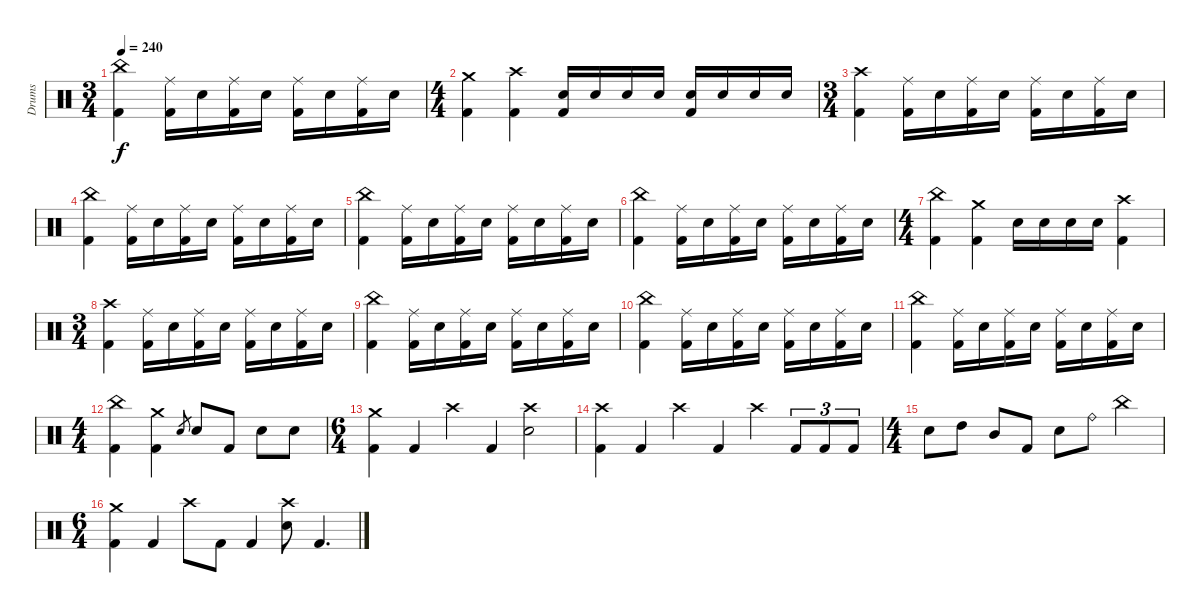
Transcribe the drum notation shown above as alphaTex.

\track ("Drums" "Drums") {instrument percussion}
\staff {score}
\articulation defaults
\ts (3 4)
\tempo 240
\clef neutral
\ks c
("China (hit)" "Kick (hit) 2").4{dy f} ("Ride (middle)" "Kick (hit) 2").16 "Electric Snare (hit)".16 ("Ride (middle)" "Kick (hit) 2").16 "Electric Snare (hit)".16 ("Ride (middle)" "Kick (hit) 2").16 "Electric Snare (hit)".16 ("Ride (middle)" "Kick (hit) 2").16 "Electric Snare (hit)".16 |
\ts (4 4)
("Crash medium (hit)" "Kick (hit) 2").4 ("Crash high (hit)" "Kick (hit) 2").4 ("Kick (hit) 2" "Electric Snare (hit)").16 "Electric Snare (hit)".16 "Electric Snare (hit)".16 "Electric Snare (hit)".16 ("Kick (hit) 2" "Electric Snare (hit)").16 "Electric Snare (hit)".16 "Electric Snare (hit)".16 "Electric Snare (hit)".16 |
\ts (3 4)
("Crash high (hit)" "Kick (hit) 2").4 ("Ride (middle)" "Kick (hit) 2").16 "Electric Snare (hit)".16 ("Ride (middle)" "Kick (hit) 2").16 "Electric Snare (hit)".16 ("Ride (middle)" "Kick (hit) 2").16 "Electric Snare (hit)".16 ("Ride (middle)" "Kick (hit) 2").16 "Electric Snare (hit)".16 |
("China (hit)" "Kick (hit) 2").4 ("Ride (middle)" "Kick (hit) 2").16 "Electric Snare (hit)".16 ("Ride (middle)" "Kick (hit) 2").16 "Electric Snare (hit)".16 ("Ride (middle)" "Kick (hit) 2").16 "Electric Snare (hit)".16 ("Ride (middle)" "Kick (hit) 2").16 "Electric Snare (hit)".16 |
("China (hit)" "Kick (hit) 2").4 ("Ride (middle)" "Kick (hit) 2").16 "Electric Snare (hit)".16 ("Ride (middle)" "Kick (hit) 2").16 "Electric Snare (hit)".16 ("Ride (middle)" "Kick (hit) 2").16 "Electric Snare (hit)".16 ("Ride (middle)" "Kick (hit) 2").16 "Electric Snare (hit)".16 |
("China (hit)" "Kick (hit) 2").4 ("Ride (middle)" "Kick (hit) 2").16 "Electric Snare (hit)".16 ("Ride (middle)" "Kick (hit) 2").16 "Electric Snare (hit)".16 ("Ride (middle)" "Kick (hit) 2").16 "Electric Snare (hit)".16 ("Ride (middle)" "Kick (hit) 2").16 "Electric Snare (hit)".16 |
\ts (4 4)
("China (hit)" "Kick (hit) 2").4 ("Crash medium (hit)" "Kick (hit) 2").4 "Electric Snare (hit)".16 "Electric Snare (hit)".16 "Electric Snare (hit)".16 "Electric Snare (hit)".16 ("Crash high (hit)" "Kick (hit) 2").4 |
\ts (3 4)
("Crash high (hit)" "Kick (hit) 2").4 ("Ride (middle)" "Kick (hit) 2").16 "Electric Snare (hit)".16 ("Ride (middle)" "Kick (hit) 2").16 "Electric Snare (hit)".16 ("Ride (middle)" "Kick (hit) 2").16 "Electric Snare (hit)".16 ("Ride (middle)" "Kick (hit) 2").16 "Electric Snare (hit)".16 |
("China (hit)" "Kick (hit) 2").4 ("Ride (middle)" "Kick (hit) 2").16 "Electric Snare (hit)".16 ("Ride (middle)" "Kick (hit) 2").16 "Electric Snare (hit)".16 ("Ride (middle)" "Kick (hit) 2").16 "Electric Snare (hit)".16 ("Ride (middle)" "Kick (hit) 2").16 "Electric Snare (hit)".16 |
("China (hit)" "Kick (hit) 2").4 ("Ride (middle)" "Kick (hit) 2").16 "Electric Snare (hit)".16 ("Ride (middle)" "Kick (hit) 2").16 "Electric Snare (hit)".16 ("Ride (middle)" "Kick (hit) 2").16 "Electric Snare (hit)".16 ("Ride (middle)" "Kick (hit) 2").16 "Electric Snare (hit)".16 |
("China (hit)" "Kick (hit) 2").4 ("Ride (middle)" "Kick (hit) 2").16 "Electric Snare (hit)".16 ("Ride (middle)" "Kick (hit) 2").16 "Electric Snare (hit)".16 ("Ride (middle)" "Kick (hit) 2").16 "Electric Snare (hit)".16 ("Ride (middle)" "Kick (hit) 2").16 "Electric Snare (hit)".16 |
\ts (4 4)
("China (hit)" "Kick (hit) 2").4 ("Crash medium (hit)" "Kick (hit) 2").4 "Electric Snare (hit)".8{gr} "Electric Snare (hit)".8 "Kick (hit) 2".8 "Electric Snare (hit)".8 "Electric Snare (hit)".8 |
\ts (6 4)
("Crash medium (hit)" "Kick (hit) 2").4 "Kick (hit) 2".4 "Crash high (hit)".4 "Kick (hit) 2".4 ("Crash high (hit)" "Electric Snare (hit)").2 |
("Crash high (hit)" "Kick (hit) 2").4 "Kick (hit) 2".4 "Crash high (hit)".4 "Kick (hit) 2".4 "Crash high (hit)".4 "Kick (hit) 2".8{tu (3 2)} "Kick (hit) 2".8{tu (3 2)} "Kick (hit) 2".8{tu (3 2)} |
\ts (4 4)
"Electric Snare (hit)".8 "High Tom (hit)".8 "Mid Tom (hit)".8 "Kick (hit) 2".8 "Electric Snare (hit)".8 "Ride (bell)".8 "China (hit)".4 |
\ts (6 4)
("Crash medium (hit)" "Kick (hit) 2").4 "Kick (hit) 2".4 "Crash high (hit)".8 "Kick (hit) 2".8 "Kick (hit) 2".4 ("Crash high (hit)" "Electric Snare (hit)").8 "Kick (hit) 2".4{d}
